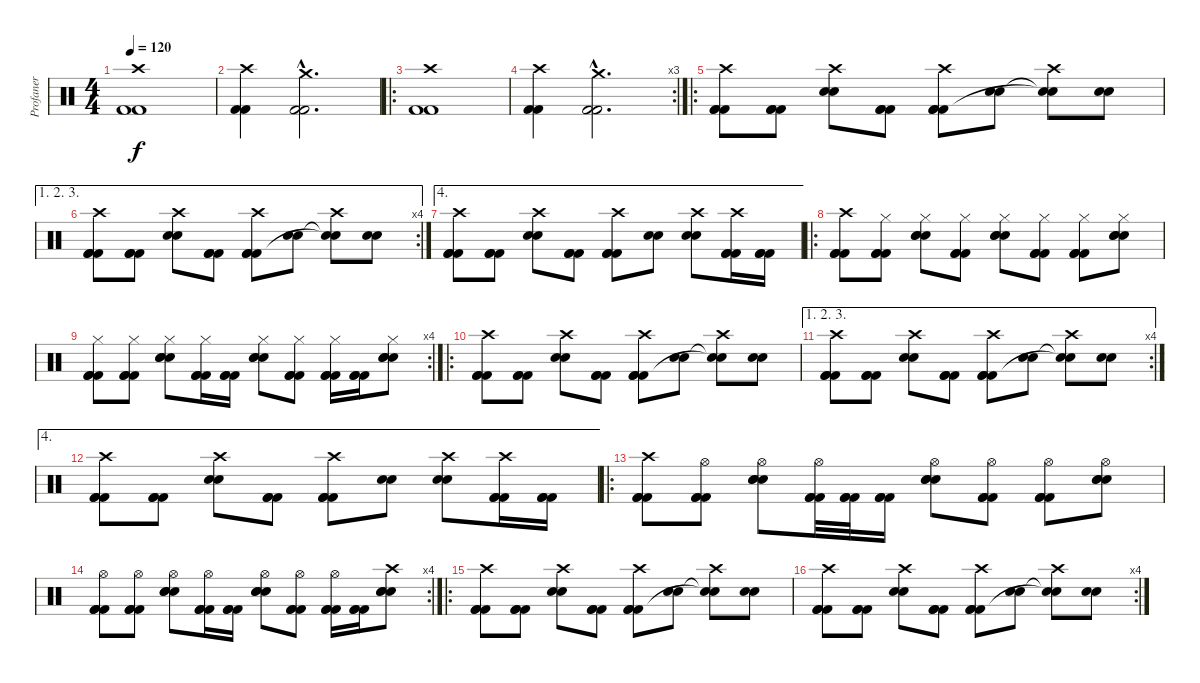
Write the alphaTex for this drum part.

\track ("Profaner" "Profaner") {instrument percussion}
\staff {score}
\articulation defaults
\ts (4 4)
\tempo 120
\clef neutral
\ks c
("Crash high (hit)" "Kick (hit) 2" "Kick (hit) 2").1{dy f} |
("Crash high (hit)" "Kick (hit) 2" "Kick (hit) 2").4 ("Crash medium (hit)"{hac} "Kick (hit) 2"{hac} "Kick (hit) 2"{hac}).2{d} |
\ro
("Crash high (hit)" "Kick (hit) 2" "Kick (hit) 2").1 |
\rc 3
("Crash high (hit)" "Kick (hit) 2" "Kick (hit) 2").4 ("Crash medium (hit)"{hac} "Kick (hit) 2"{hac} "Kick (hit) 2"{hac}).2{d} |
\ro
("Crash high (hit)" "Kick (hit) 2" "Kick (hit) 2" "Kick (hit) 2").8 ("Kick (hit) 2" "Kick (hit) 2" "Kick (hit) 2").8 ("Crash high (hit)" "Electric Snare (hit)" "Electric Snare (hit)").8 ("Kick (hit) 2" "Kick (hit) 2" "Kick (hit) 2").8 ("Crash high (hit)" "Kick (hit) 2" "Kick (hit) 2" "Kick (hit) 2").8 ("Electric Snare (hit)" "Electric Snare (hit)").8 ("Crash high (hit)" "Electric Snare (hit)"{t} "Electric Snare (hit)"{t}).8 ("Electric Snare (hit)" "Electric Snare (hit)").8 |
\ae (1 2 3)
\rc 4
("Crash high (hit)" "Kick (hit) 2" "Kick (hit) 2" "Kick (hit) 2").8 ("Kick (hit) 2" "Kick (hit) 2" "Kick (hit) 2").8 ("Crash high (hit)" "Electric Snare (hit)" "Electric Snare (hit)").8 ("Kick (hit) 2" "Kick (hit) 2" "Kick (hit) 2").8 ("Crash high (hit)" "Kick (hit) 2" "Kick (hit) 2" "Kick (hit) 2").8 ("Electric Snare (hit)" "Electric Snare (hit)").8 ("Crash high (hit)" "Electric Snare (hit)"{t} "Electric Snare (hit)"{t}).8 ("Electric Snare (hit)" "Electric Snare (hit)").8 |
\ae 4
("Crash high (hit)" "Kick (hit) 2" "Kick (hit) 2" "Kick (hit) 2").8 ("Kick (hit) 2" "Kick (hit) 2" "Kick (hit) 2").8 ("Crash high (hit)" "Electric Snare (hit)" "Electric Snare (hit)").8 ("Kick (hit) 2" "Kick (hit) 2" "Kick (hit) 2").8 ("Crash high (hit)" "Kick (hit) 2" "Kick (hit) 2" "Kick (hit) 2").8 ("Electric Snare (hit)" "Electric Snare (hit)").8 ("Crash high (hit)" "Electric Snare (hit)" "Electric Snare (hit)").8 ("Crash high (hit)" "Kick (hit) 2" "Kick (hit) 2" "Kick (hit) 2").16 ("Kick (hit) 2" "Kick (hit) 2" "Kick (hit) 2").16 |
\ro
("Crash high (hit)" "Kick (hit) 2" "Kick (hit) 2" "Kick (hit) 2").8 ("Hi-Hat (closed)" "Kick (hit) 2" "Kick (hit) 2" "Kick (hit) 2").8 ("Hi-Hat (closed)" "Electric Snare (hit)" "Electric Snare (hit)" "Electric Snare (hit)").8 ("Hi-Hat (closed)" "Kick (hit) 2" "Kick (hit) 2" "Kick (hit) 2").8 ("Hi-Hat (closed)" "Electric Snare (hit)" "Electric Snare (hit)" "Electric Snare (hit)").8 ("Hi-Hat (closed)" "Kick (hit) 2" "Kick (hit) 2" "Kick (hit) 2").8 ("Hi-Hat (closed)" "Kick (hit) 2" "Kick (hit) 2" "Kick (hit) 2").8 ("Hi-Hat (closed)" "Electric Snare (hit)" "Electric Snare (hit)" "Electric Snare (hit)").8 |
\rc 4
("Hi-Hat (closed)" "Kick (hit) 2" "Kick (hit) 2" "Kick (hit) 2").8 ("Hi-Hat (closed)" "Kick (hit) 2" "Kick (hit) 2" "Kick (hit) 2").8 ("Hi-Hat (closed)" "Electric Snare (hit)" "Electric Snare (hit)" "Electric Snare (hit)").8 ("Hi-Hat (closed)" "Kick (hit) 2" "Kick (hit) 2" "Kick (hit) 2").16 ("Kick (hit) 2" "Kick (hit) 2" "Kick (hit) 2").16 ("Hi-Hat (closed)" "Electric Snare (hit)" "Electric Snare (hit)" "Electric Snare (hit)").8 ("Hi-Hat (closed)" "Kick (hit) 2" "Kick (hit) 2" "Kick (hit) 2").8 ("Hi-Hat (closed)" "Kick (hit) 2" "Kick (hit) 2" "Kick (hit) 2").16 ("Kick (hit) 2" "Kick (hit) 2" "Kick (hit) 2").16 ("Hi-Hat (closed)" "Electric Snare (hit)" "Electric Snare (hit)" "Electric Snare (hit)").8 |
\ro
("Crash high (hit)" "Kick (hit) 2" "Kick (hit) 2" "Kick (hit) 2").8 ("Kick (hit) 2" "Kick (hit) 2" "Kick (hit) 2").8 ("Crash high (hit)" "Electric Snare (hit)" "Electric Snare (hit)").8 ("Kick (hit) 2" "Kick (hit) 2" "Kick (hit) 2").8 ("Crash high (hit)" "Kick (hit) 2" "Kick (hit) 2" "Kick (hit) 2").8 ("Electric Snare (hit)" "Electric Snare (hit)").8 ("Crash high (hit)" "Electric Snare (hit)"{t} "Electric Snare (hit)"{t}).8 ("Electric Snare (hit)" "Electric Snare (hit)").8 |
\ae (1 2 3)
\rc 4
("Crash high (hit)" "Kick (hit) 2" "Kick (hit) 2" "Kick (hit) 2").8 ("Kick (hit) 2" "Kick (hit) 2" "Kick (hit) 2").8 ("Crash high (hit)" "Electric Snare (hit)" "Electric Snare (hit)").8 ("Kick (hit) 2" "Kick (hit) 2" "Kick (hit) 2").8 ("Crash high (hit)" "Kick (hit) 2" "Kick (hit) 2" "Kick (hit) 2").8 ("Electric Snare (hit)" "Electric Snare (hit)").8 ("Crash high (hit)" "Electric Snare (hit)"{t} "Electric Snare (hit)"{t}).8 ("Electric Snare (hit)" "Electric Snare (hit)").8 |
\ae 4
("Crash high (hit)" "Kick (hit) 2" "Kick (hit) 2" "Kick (hit) 2").8 ("Kick (hit) 2" "Kick (hit) 2" "Kick (hit) 2").8 ("Crash high (hit)" "Electric Snare (hit)" "Electric Snare (hit)").8 ("Kick (hit) 2" "Kick (hit) 2" "Kick (hit) 2").8 ("Crash high (hit)" "Kick (hit) 2" "Kick (hit) 2" "Kick (hit) 2").8 ("Electric Snare (hit)" "Electric Snare (hit)").8 ("Crash high (hit)" "Electric Snare (hit)" "Electric Snare (hit)").8 ("Crash high (hit)" "Kick (hit) 2" "Kick (hit) 2" "Kick (hit) 2").16 ("Kick (hit) 2" "Kick (hit) 2" "Kick (hit) 2").16 |
\ro
("Crash high (hit)" "Kick (hit) 2" "Kick (hit) 2" "Kick (hit) 2").8 ("Hi-Hat (open)" "Kick (hit) 2" "Kick (hit) 2" "Kick (hit) 2").8 ("Hi-Hat (open)" "Electric Snare (hit)" "Electric Snare (hit)" "Electric Snare (hit)").8 ("Hi-Hat (open)" "Kick (hit) 2" "Kick (hit) 2" "Kick (hit) 2").32 ("Kick (hit) 2" "Kick (hit) 2" "Kick (hit) 2").32 ("Kick (hit) 2" "Kick (hit) 2" "Kick (hit) 2").16 ("Hi-Hat (open)" "Electric Snare (hit)" "Electric Snare (hit)" "Electric Snare (hit)").8 ("Hi-Hat (open)" "Kick (hit) 2" "Kick (hit) 2" "Kick (hit) 2").8 ("Hi-Hat (open)" "Kick (hit) 2" "Kick (hit) 2" "Kick (hit) 2").8 ("Hi-Hat (open)" "Electric Snare (hit)" "Electric Snare (hit)" "Electric Snare (hit)").8 |
\rc 4
("Hi-Hat (open)" "Kick (hit) 2" "Kick (hit) 2" "Kick (hit) 2").8 ("Hi-Hat (open)" "Kick (hit) 2" "Kick (hit) 2" "Kick (hit) 2").8 ("Hi-Hat (open)" "Electric Snare (hit)" "Electric Snare (hit)" "Electric Snare (hit)").8 ("Hi-Hat (open)" "Kick (hit) 2" "Kick (hit) 2" "Kick (hit) 2").16 ("Kick (hit) 2" "Kick (hit) 2" "Kick (hit) 2").16 ("Hi-Hat (open)" "Electric Snare (hit)" "Electric Snare (hit)" "Electric Snare (hit)").8 ("Hi-Hat (open)" "Kick (hit) 2" "Kick (hit) 2" "Kick (hit) 2").8 ("Hi-Hat (open)" "Kick (hit) 2" "Kick (hit) 2" "Kick (hit) 2").16 ("Kick (hit) 2" "Kick (hit) 2" "Kick (hit) 2").16 ("Crash high (hit)" "Electric Snare (hit)" "Electric Snare (hit)" "Electric Snare (hit)").8 |
\ro
("Crash high (hit)" "Kick (hit) 2" "Kick (hit) 2" "Kick (hit) 2").8 ("Kick (hit) 2" "Kick (hit) 2" "Kick (hit) 2").8 ("Crash high (hit)" "Electric Snare (hit)" "Electric Snare (hit)").8 ("Kick (hit) 2" "Kick (hit) 2" "Kick (hit) 2").8 ("Crash high (hit)" "Kick (hit) 2" "Kick (hit) 2" "Kick (hit) 2").8 ("Electric Snare (hit)" "Electric Snare (hit)").8 ("Crash high (hit)" "Electric Snare (hit)"{t} "Electric Snare (hit)"{t}).8 ("Electric Snare (hit)" "Electric Snare (hit)").8 |
\rc 4
("Crash high (hit)" "Kick (hit) 2" "Kick (hit) 2" "Kick (hit) 2").8 ("Kick (hit) 2" "Kick (hit) 2" "Kick (hit) 2").8 ("Crash high (hit)" "Electric Snare (hit)" "Electric Snare (hit)").8 ("Kick (hit) 2" "Kick (hit) 2" "Kick (hit) 2").8 ("Crash high (hit)" "Kick (hit) 2" "Kick (hit) 2" "Kick (hit) 2").8 ("Electric Snare (hit)" "Electric Snare (hit)").8 ("Crash high (hit)" "Electric Snare (hit)"{t} "Electric Snare (hit)"{t}).8 ("Electric Snare (hit)" "Electric Snare (hit)").8
